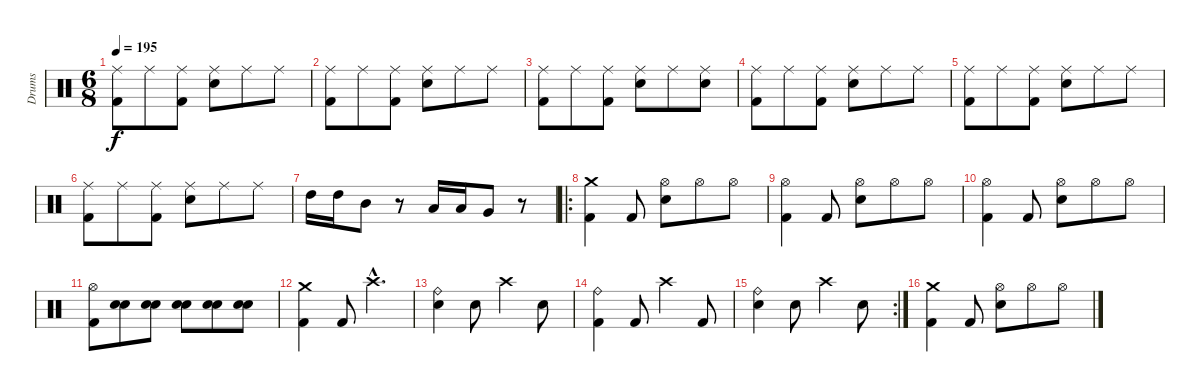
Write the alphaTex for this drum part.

\track ("Drums" "Drums") {instrument percussion}
\staff {score}
\articulation defaults
\ts (6 8)
\tempo 195
\clef neutral
\ks c
("Ride (middle)" "Kick (hit) 2").8{dy f} "Ride (middle)".8 ("Ride (middle)" "Kick (hit) 2").8 ("Ride (middle)" "Electric Snare (hit)").8 "Ride (middle)".8 "Ride (middle)".8 |
("Ride (middle)" "Kick (hit) 2").8 "Ride (middle)".8 ("Ride (middle)" "Kick (hit) 2").8 ("Ride (middle)" "Electric Snare (hit)").8 "Ride (middle)".8 "Ride (middle)".8 |
("Ride (middle)" "Kick (hit) 2").8 "Ride (middle)".8 ("Ride (middle)" "Kick (hit) 2").8 ("Ride (middle)" "Electric Snare (hit)").8 "Ride (middle)".8 ("Ride (middle)" "Electric Snare (hit)").8 |
("Ride (middle)" "Kick (hit) 2").8 "Ride (middle)".8 ("Ride (middle)" "Kick (hit) 2").8 ("Ride (middle)" "Electric Snare (hit)").8 "Ride (middle)".8 "Ride (middle)".8 |
("Ride (middle)" "Kick (hit) 2").8 "Ride (middle)".8 ("Ride (middle)" "Kick (hit) 2").8 ("Ride (middle)" "Electric Snare (hit)").8 "Ride (middle)".8 "Ride (middle)".8 |
("Ride (middle)" "Kick (hit) 2").8 "Ride (middle)".8 ("Ride (middle)" "Kick (hit) 2").8 ("Ride (middle)" "Electric Snare (hit)").8 "Ride (middle)".8 "Ride (middle)".8 |
"High Tom (hit)".16 "High Tom (hit)".16 "Mid Tom (hit)".8 r.8 "Low Tom (hit)".16 "Low Tom (hit)".16 "Very Low Tom (hit)".8 r.8 |
\ro
("Crash medium (hit)" "Kick (hit) 2").4 "Kick (hit) 2".8 ("Hi-Hat (open)" "Electric Snare (hit)").8 "Hi-Hat (open)".8 "Hi-Hat (open)".8 |
("Hi-Hat (open)" "Kick (hit) 2").4 "Kick (hit) 2".8 ("Hi-Hat (open)" "Electric Snare (hit)").8 "Hi-Hat (open)".8 "Hi-Hat (open)".8 |
("Hi-Hat (open)" "Kick (hit) 2").4 "Kick (hit) 2".8 ("Hi-Hat (open)" "Electric Snare (hit)").8 "Hi-Hat (open)".8 "Hi-Hat (open)".8 |
("Hi-Hat (open)" "Kick (hit) 2").8 ("Electric Snare (hit)" "Electric Snare (hit)").8{bd 120} ("Electric Snare (hit)" "Electric Snare (hit)").8{bu 120} ("Electric Snare (hit)" "Electric Snare (hit)").8{bd 120} ("Electric Snare (hit)" "Electric Snare (hit)").8{bu 120} ("Electric Snare (hit)" "Electric Snare (hit)").8{bd 120} |
("Crash medium (hit)" "Kick (hit) 2").4 "Kick (hit) 2".8 "Crash high (hit)"{hac}.4{d} |
("Ride (bell)" "Electric Snare (hit)").4 "Electric Snare (hit)".8 "Crash high (hit)".4 "Electric Snare (hit)".8 |
("Ride (bell)" "Kick (hit) 2").4 "Kick (hit) 2".8 "Crash high (hit)".4 "Kick (hit) 2".8 |
\rc 2
("Ride (bell)" "Electric Snare (hit)").4 "Electric Snare (hit)".8 "Crash high (hit)".4 "Electric Snare (hit)".8 |
("Crash medium (hit)" "Kick (hit) 2").4 "Kick (hit) 2".8 ("Hi-Hat (open)" "Electric Snare (hit)").8 "Hi-Hat (open)".8 "Hi-Hat (open)".8
